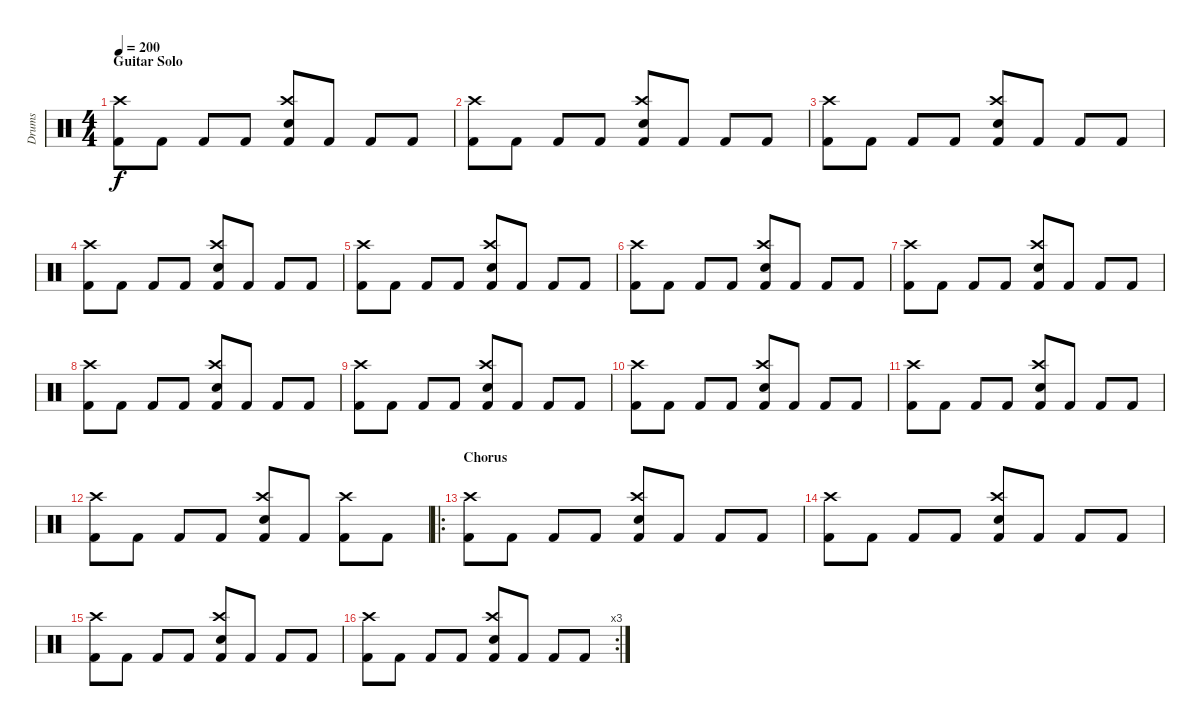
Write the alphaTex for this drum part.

\track ("Drums" "Drums") {instrument percussion}
\staff {score}
\articulation defaults
\ts (4 4)
\section ("" "Guitar Solo")
\tempo 200
\clef neutral
\ks c
("Kick (hit) 2" "Crash high (hit)").8{dy f} "Kick (hit) 2".8 "Kick (hit) 2".8 "Kick (hit) 2".8 ("Kick (hit) 2" "Crash high (hit)" "Electric Snare (hit)").8 "Kick (hit) 2".8 "Kick (hit) 2".8 "Kick (hit) 2".8 |
("Kick (hit) 2" "Crash high (hit)").8 "Kick (hit) 2".8 "Kick (hit) 2".8 "Kick (hit) 2".8 ("Kick (hit) 2" "Crash high (hit)" "Electric Snare (hit)").8 "Kick (hit) 2".8 "Kick (hit) 2".8 "Kick (hit) 2".8 |
("Kick (hit) 2" "Crash high (hit)").8 "Kick (hit) 2".8 "Kick (hit) 2".8 "Kick (hit) 2".8 ("Kick (hit) 2" "Crash high (hit)" "Electric Snare (hit)").8 "Kick (hit) 2".8 "Kick (hit) 2".8 "Kick (hit) 2".8 |
("Kick (hit) 2" "Crash high (hit)").8 "Kick (hit) 2".8 "Kick (hit) 2".8 "Kick (hit) 2".8 ("Kick (hit) 2" "Crash high (hit)" "Electric Snare (hit)").8 "Kick (hit) 2".8 "Kick (hit) 2".8 "Kick (hit) 2".8 |
("Kick (hit) 2" "Crash high (hit)").8 "Kick (hit) 2".8 "Kick (hit) 2".8 "Kick (hit) 2".8 ("Kick (hit) 2" "Crash high (hit)" "Electric Snare (hit)").8 "Kick (hit) 2".8 "Kick (hit) 2".8 "Kick (hit) 2".8 |
("Kick (hit) 2" "Crash high (hit)").8 "Kick (hit) 2".8 "Kick (hit) 2".8 "Kick (hit) 2".8 ("Kick (hit) 2" "Crash high (hit)" "Electric Snare (hit)").8 "Kick (hit) 2".8 "Kick (hit) 2".8 "Kick (hit) 2".8 |
("Kick (hit) 2" "Crash high (hit)").8 "Kick (hit) 2".8 "Kick (hit) 2".8 "Kick (hit) 2".8 ("Kick (hit) 2" "Crash high (hit)" "Electric Snare (hit)").8 "Kick (hit) 2".8 "Kick (hit) 2".8 "Kick (hit) 2".8 |
("Kick (hit) 2" "Crash high (hit)").8 "Kick (hit) 2".8 "Kick (hit) 2".8 "Kick (hit) 2".8 ("Kick (hit) 2" "Crash high (hit)" "Electric Snare (hit)").8 "Kick (hit) 2".8 "Kick (hit) 2".8 "Kick (hit) 2".8 |
("Kick (hit) 2" "Crash high (hit)").8 "Kick (hit) 2".8 "Kick (hit) 2".8 "Kick (hit) 2".8 ("Kick (hit) 2" "Crash high (hit)" "Electric Snare (hit)").8 "Kick (hit) 2".8 "Kick (hit) 2".8 "Kick (hit) 2".8 |
("Kick (hit) 2" "Crash high (hit)").8 "Kick (hit) 2".8 "Kick (hit) 2".8 "Kick (hit) 2".8 ("Kick (hit) 2" "Crash high (hit)" "Electric Snare (hit)").8 "Kick (hit) 2".8 "Kick (hit) 2".8 "Kick (hit) 2".8 |
("Kick (hit) 2" "Crash high (hit)").8 "Kick (hit) 2".8 "Kick (hit) 2".8 "Kick (hit) 2".8 ("Kick (hit) 2" "Crash high (hit)" "Electric Snare (hit)").8 "Kick (hit) 2".8 "Kick (hit) 2".8 "Kick (hit) 2".8 |
("Kick (hit) 2" "Crash high (hit)").8 "Kick (hit) 2".8 "Kick (hit) 2".8 "Kick (hit) 2".8 ("Kick (hit) 2" "Crash high (hit)" "Electric Snare (hit)").8 "Kick (hit) 2".8 ("Kick (hit) 2" "Crash high (hit)").8 "Kick (hit) 2".8 |
\ro
\section ("" "Chorus")
("Kick (hit) 2" "Crash high (hit)").8 "Kick (hit) 2".8 "Kick (hit) 2".8 "Kick (hit) 2".8 ("Kick (hit) 2" "Crash high (hit)" "Electric Snare (hit)").8 "Kick (hit) 2".8 "Kick (hit) 2".8 "Kick (hit) 2".8 |
("Kick (hit) 2" "Crash high (hit)").8 "Kick (hit) 2".8 "Kick (hit) 2".8 "Kick (hit) 2".8 ("Kick (hit) 2" "Crash high (hit)" "Electric Snare (hit)").8 "Kick (hit) 2".8 "Kick (hit) 2".8 "Kick (hit) 2".8 |
("Kick (hit) 2" "Crash high (hit)").8 "Kick (hit) 2".8 "Kick (hit) 2".8 "Kick (hit) 2".8 ("Kick (hit) 2" "Crash high (hit)" "Electric Snare (hit)").8 "Kick (hit) 2".8 "Kick (hit) 2".8 "Kick (hit) 2".8 |
\rc 3
("Kick (hit) 2" "Crash high (hit)").8 "Kick (hit) 2".8 "Kick (hit) 2".8 "Kick (hit) 2".8 ("Kick (hit) 2" "Crash high (hit)" "Electric Snare (hit)").8 "Kick (hit) 2".8 "Kick (hit) 2".8 "Kick (hit) 2".8
